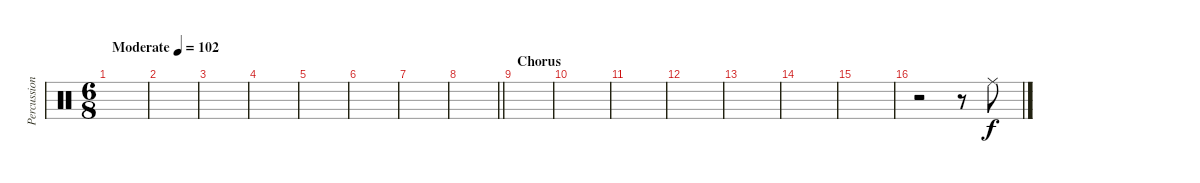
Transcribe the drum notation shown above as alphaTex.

\track ("Percussion" "Percussion") {instrument percussion}
\staff {score}
\articulation defaults
\ts (6 8)
\tempo (102 "Moderate")
\clef neutral
\ks c
|
|
|
|
|
|
|
\barLineRight lightlight
|
\section ("" "Chorus")
|
|
|
|
|
|
|
r.2 r.8 "Ride (middle)".8
